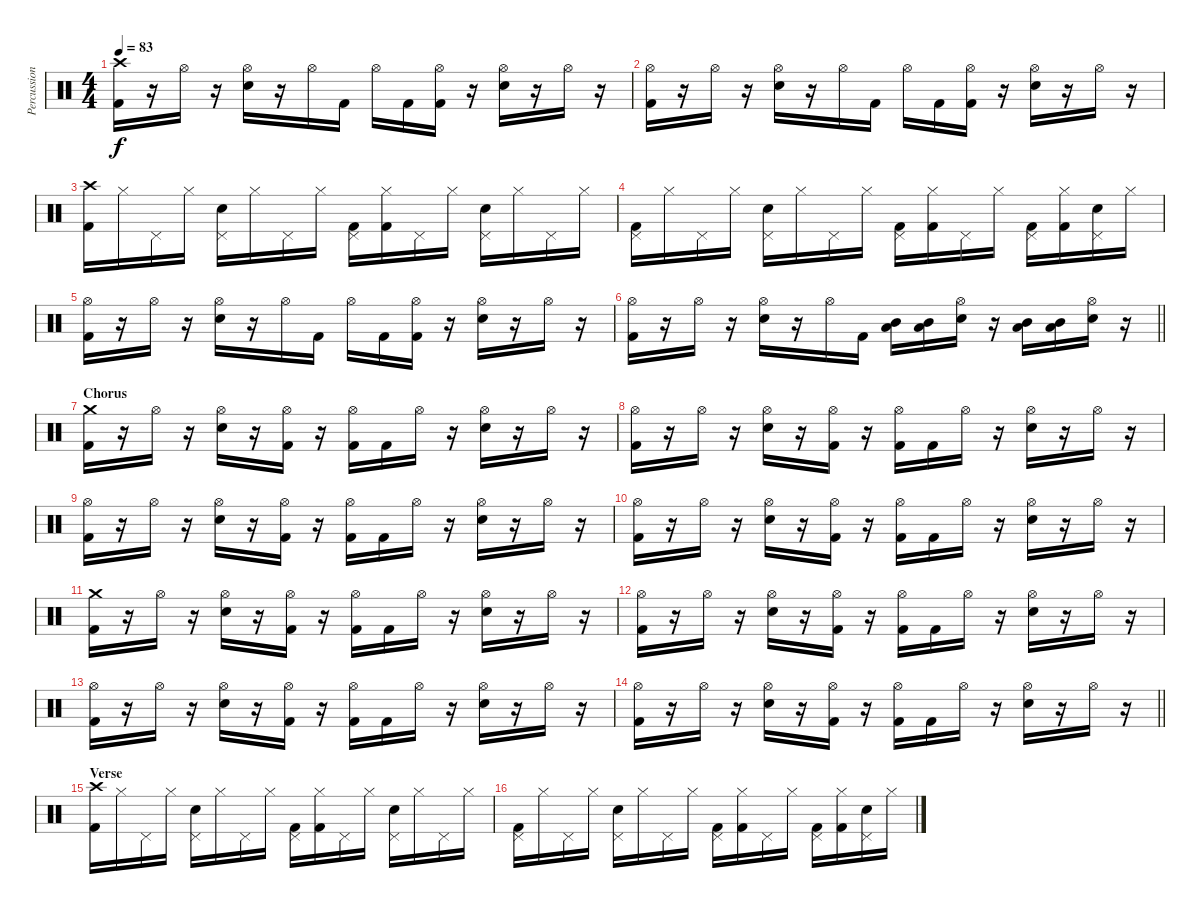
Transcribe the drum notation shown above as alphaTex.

\track ("Percussion" "Percussion") {instrument percussion}
\staff {score}
\articulation defaults
\ts (4 4)
\tempo 83
\clef neutral
\ks c
("Crash high (hit)" "Kick (hit) 2").16{dy f} r.16 "Hi-Hat (open)".16 r.16 ("Hi-Hat (open)" "Electric Snare (hit)").16 r.16 "Hi-Hat (open)".16 "Kick (hit) 2".16 "Hi-Hat (open)".16 "Kick (hit) 2".16 ("Hi-Hat (open)" "Kick (hit) 2").16 r.16 ("Hi-Hat (open)" "Electric Snare (hit)").16 r.16 "Hi-Hat (open)".16 r.16 |
("Hi-Hat (open)" "Kick (hit) 2").16 r.16 "Hi-Hat (open)".16 r.16 ("Hi-Hat (open)" "Electric Snare (hit)").16 r.16 "Hi-Hat (open)".16 "Kick (hit) 2".16 "Hi-Hat (open)".16 "Kick (hit) 2".16 ("Hi-Hat (open)" "Kick (hit) 2").16 r.16 ("Hi-Hat (open)" "Electric Snare (hit)").16 r.16 "Hi-Hat (open)".16 r.16 |
("Crash high (hit)" "Kick (hit) 2").16 "Hi-Hat (closed)".16 "Pedal Hi-Hat (hit)".16 "Hi-Hat (closed)".16 ("Pedal Hi-Hat (hit)" "Electric Snare (hit)").16 "Hi-Hat (closed)".16 "Pedal Hi-Hat (hit)".16 "Hi-Hat (closed)".16 ("Pedal Hi-Hat (hit)" "Kick (hit) 2").16 ("Hi-Hat (closed)" "Kick (hit) 2").16 "Pedal Hi-Hat (hit)".16 "Hi-Hat (closed)".16 ("Pedal Hi-Hat (hit)" "Electric Snare (hit)").16 "Hi-Hat (closed)".16 "Pedal Hi-Hat (hit)".16 "Hi-Hat (closed)".16 |
("Pedal Hi-Hat (hit)" "Kick (hit) 2").16 "Hi-Hat (closed)".16 "Pedal Hi-Hat (hit)".16 "Hi-Hat (closed)".16 ("Pedal Hi-Hat (hit)" "Electric Snare (hit)").16 "Hi-Hat (closed)".16 "Pedal Hi-Hat (hit)".16 "Hi-Hat (closed)".16 ("Pedal Hi-Hat (hit)" "Kick (hit) 2").16 ("Hi-Hat (closed)" "Kick (hit) 2").16 "Pedal Hi-Hat (hit)".16 "Hi-Hat (closed)".16 ("Pedal Hi-Hat (hit)" "Kick (hit) 2").16 ("Hi-Hat (closed)" "Kick (hit) 2").16 ("Pedal Hi-Hat (hit)" "Electric Snare (hit)").16 "Hi-Hat (closed)".16 |
("Hi-Hat (open)" "Kick (hit) 2").16 r.16 "Hi-Hat (open)".16 r.16 ("Hi-Hat (open)" "Electric Snare (hit)").16 r.16 "Hi-Hat (open)".16 "Kick (hit) 2".16 "Hi-Hat (open)".16 "Kick (hit) 2".16 ("Hi-Hat (open)" "Kick (hit) 2").16 r.16 ("Hi-Hat (open)" "Electric Snare (hit)").16 r.16 "Hi-Hat (open)".16 r.16 |
\barLineRight lightlight
("Hi-Hat (open)" "Kick (hit) 2").16 r.16 "Hi-Hat (open)".16 r.16 ("Hi-Hat (open)" "Electric Snare (hit)").16 r.16 "Hi-Hat (open)".16 "Kick (hit) 2".16 ("Mid Tom (hit)" "Low Tom (hit)").16 ("Mid Tom (hit)" "Low Tom (hit)").16 ("Hi-Hat (open)" "Electric Snare (hit)").16 r.16 ("Mid Tom (hit)" "Low Tom (hit)").16 ("Mid Tom (hit)" "Low Tom (hit)").16 ("Hi-Hat (open)" "Electric Snare (hit)").16 r.16 |
\section ("" "Chorus")
("Crash medium (hit)" "Kick (hit) 2").16 r.16 "Hi-Hat (open)".16 r.16 ("Hi-Hat (open)" "Electric Snare (hit)").16 r.16 ("Hi-Hat (open)" "Kick (hit) 2").16 r.16 ("Hi-Hat (open)" "Kick (hit) 2").16 "Kick (hit) 2".16 "Hi-Hat (open)".16 r.16 ("Hi-Hat (open)" "Electric Snare (hit)").16 r.16 "Hi-Hat (open)".16 r.16 |
("Hi-Hat (open)" "Kick (hit) 2").16 r.16 "Hi-Hat (open)".16 r.16 ("Hi-Hat (open)" "Electric Snare (hit)").16 r.16 ("Hi-Hat (open)" "Kick (hit) 2").16 r.16 ("Hi-Hat (open)" "Kick (hit) 2").16 "Kick (hit) 2".16 "Hi-Hat (open)".16 r.16 ("Hi-Hat (open)" "Electric Snare (hit)").16 r.16 "Hi-Hat (open)".16 r.16 |
("Hi-Hat (open)" "Kick (hit) 2").16 r.16 "Hi-Hat (open)".16 r.16 ("Hi-Hat (open)" "Electric Snare (hit)").16 r.16 ("Hi-Hat (open)" "Kick (hit) 2").16 r.16 ("Hi-Hat (open)" "Kick (hit) 2").16 "Kick (hit) 2".16 "Hi-Hat (open)".16 r.16 ("Hi-Hat (open)" "Electric Snare (hit)").16 r.16 "Hi-Hat (open)".16 r.16 |
("Hi-Hat (open)" "Kick (hit) 2").16 r.16 "Hi-Hat (open)".16 r.16 ("Hi-Hat (open)" "Electric Snare (hit)").16 r.16 ("Hi-Hat (open)" "Kick (hit) 2").16 r.16 ("Hi-Hat (open)" "Kick (hit) 2").16 "Kick (hit) 2".16 "Hi-Hat (open)".16 r.16 ("Hi-Hat (open)" "Electric Snare (hit)").16 r.16 "Hi-Hat (open)".16 r.16 |
("Crash medium (hit)" "Kick (hit) 2").16 r.16 "Hi-Hat (open)".16 r.16 ("Hi-Hat (open)" "Electric Snare (hit)").16 r.16 ("Hi-Hat (open)" "Kick (hit) 2").16 r.16 ("Hi-Hat (open)" "Kick (hit) 2").16 "Kick (hit) 2".16 "Hi-Hat (open)".16 r.16 ("Hi-Hat (open)" "Electric Snare (hit)").16 r.16 "Hi-Hat (open)".16 r.16 |
("Hi-Hat (open)" "Kick (hit) 2").16 r.16 "Hi-Hat (open)".16 r.16 ("Hi-Hat (open)" "Electric Snare (hit)").16 r.16 ("Hi-Hat (open)" "Kick (hit) 2").16 r.16 ("Hi-Hat (open)" "Kick (hit) 2").16 "Kick (hit) 2".16 "Hi-Hat (open)".16 r.16 ("Hi-Hat (open)" "Electric Snare (hit)").16 r.16 "Hi-Hat (open)".16 r.16 |
("Hi-Hat (open)" "Kick (hit) 2").16 r.16 "Hi-Hat (open)".16 r.16 ("Hi-Hat (open)" "Electric Snare (hit)").16 r.16 ("Hi-Hat (open)" "Kick (hit) 2").16 r.16 ("Hi-Hat (open)" "Kick (hit) 2").16 "Kick (hit) 2".16 "Hi-Hat (open)".16 r.16 ("Hi-Hat (open)" "Electric Snare (hit)").16 r.16 "Hi-Hat (open)".16 r.16 |
\barLineRight lightlight
("Hi-Hat (open)" "Kick (hit) 2").16 r.16 "Hi-Hat (open)".16 r.16 ("Hi-Hat (open)" "Electric Snare (hit)").16 r.16 ("Hi-Hat (open)" "Kick (hit) 2").16 r.16 ("Hi-Hat (open)" "Kick (hit) 2").16 "Kick (hit) 2".16 "Hi-Hat (open)".16 r.16 ("Hi-Hat (open)" "Electric Snare (hit)").16 r.16 "Hi-Hat (open)".16 r.16 |
\section ("" "Verse")
("Crash high (hit)" "Kick (hit) 2").16 "Hi-Hat (closed)".16 "Pedal Hi-Hat (hit)".16 "Hi-Hat (closed)".16 ("Pedal Hi-Hat (hit)" "Electric Snare (hit)").16 "Hi-Hat (closed)".16 "Pedal Hi-Hat (hit)".16 "Hi-Hat (closed)".16 ("Pedal Hi-Hat (hit)" "Kick (hit) 2").16 ("Hi-Hat (closed)" "Kick (hit) 2").16 "Pedal Hi-Hat (hit)".16 "Hi-Hat (closed)".16 ("Pedal Hi-Hat (hit)" "Electric Snare (hit)").16 "Hi-Hat (closed)".16 "Pedal Hi-Hat (hit)".16 "Hi-Hat (closed)".16 |
("Pedal Hi-Hat (hit)" "Kick (hit) 2").16 "Hi-Hat (closed)".16 "Pedal Hi-Hat (hit)".16 "Hi-Hat (closed)".16 ("Pedal Hi-Hat (hit)" "Electric Snare (hit)").16 "Hi-Hat (closed)".16 "Pedal Hi-Hat (hit)".16 "Hi-Hat (closed)".16 ("Pedal Hi-Hat (hit)" "Kick (hit) 2").16 ("Hi-Hat (closed)" "Kick (hit) 2").16 "Pedal Hi-Hat (hit)".16 "Hi-Hat (closed)".16 ("Pedal Hi-Hat (hit)" "Kick (hit) 2").16 ("Hi-Hat (closed)" "Kick (hit) 2").16 ("Pedal Hi-Hat (hit)" "Electric Snare (hit)").16 "Hi-Hat (closed)".16
